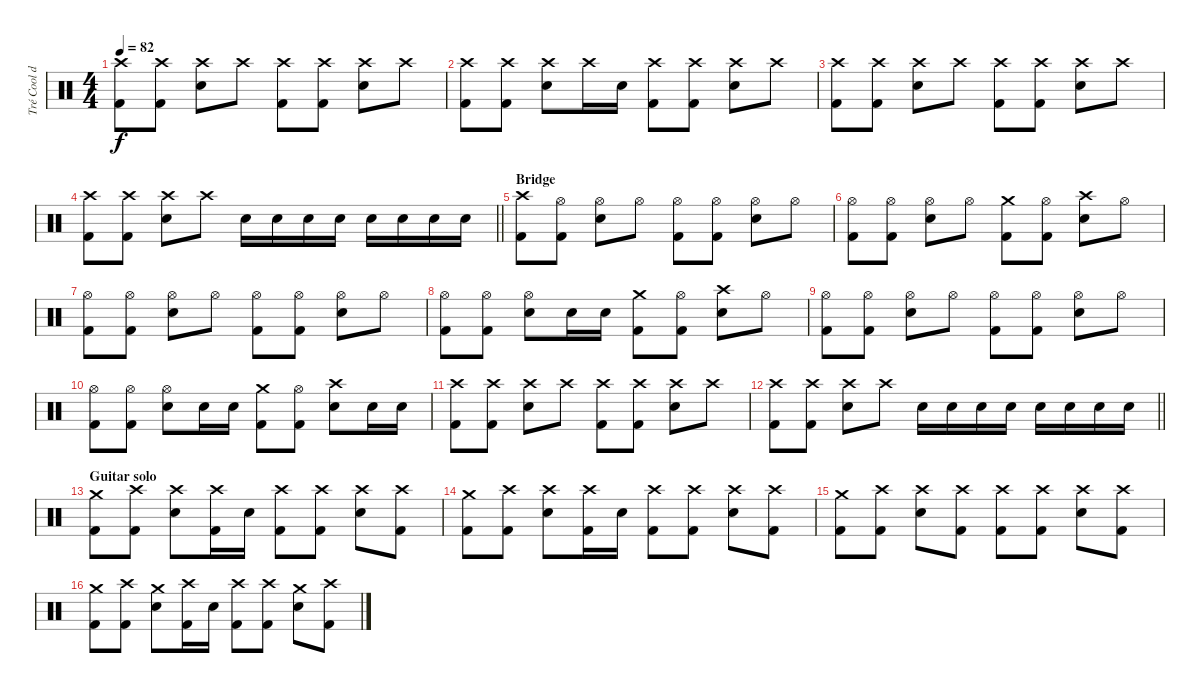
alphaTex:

\track ("Tré Cool drums" "Tré Cool d") {instrument percussion}
\staff {score}
\articulation defaults
\ts (4 4)
\tempo 82
\clef neutral
\ks c
("Crash high (hit)" "Kick (hit) 2").8{dy f} ("Crash high (hit)" "Kick (hit) 2").8 ("Crash high (hit)" "Snare (hit) 2").8 "Crash high (hit)".8 ("Crash high (hit)" "Kick (hit) 2").8 ("Crash high (hit)" "Kick (hit) 2").8 ("Crash high (hit)" "Snare (hit) 2").8 "Crash high (hit)".8 |
("Crash high (hit)" "Kick (hit) 2").8 ("Crash high (hit)" "Kick (hit) 2").8 ("Crash high (hit)" "Snare (hit) 2").8 "Crash high (hit)".16 "Snare (hit) 2".16 ("Crash high (hit)" "Kick (hit) 2").8 ("Crash high (hit)" "Kick (hit) 2").8 ("Crash high (hit)" "Snare (hit) 2").8 "Crash high (hit)".8 |
("Crash high (hit)" "Kick (hit) 2").8 ("Crash high (hit)" "Kick (hit) 2").8 ("Crash high (hit)" "Snare (hit) 2").8 "Crash high (hit)".8 ("Crash high (hit)" "Kick (hit) 2").8 ("Crash high (hit)" "Kick (hit) 2").8 ("Crash high (hit)" "Snare (hit) 2").8 "Crash high (hit)".8 |
\barLineRight lightlight
("Crash high (hit)" "Kick (hit) 2").8 ("Crash high (hit)" "Kick (hit) 2").8 ("Crash high (hit)" "Snare (hit) 2").8 "Crash high (hit)".8 "Snare (hit) 2".16 "Snare (hit) 2".16 "Snare (hit) 2".16 "Snare (hit) 2".16 "Snare (hit) 2".16 "Snare (hit) 2".16 "Snare (hit) 2".16 "Snare (hit) 2".16 |
\section ("" "Bridge")
("Crash high (hit)" "Kick (hit) 2").8 ("Hi-Hat (open)" "Kick (hit) 2").8 ("Hi-Hat (open)" "Snare (hit) 2").8 "Hi-Hat (open)".8 ("Hi-Hat (open)" "Kick (hit) 2").8 ("Hi-Hat (open)" "Kick (hit) 2").8 ("Hi-Hat (open)" "Snare (hit) 2").8 "Hi-Hat (open)".8 |
("Hi-Hat (open)" "Kick (hit) 2").8 ("Hi-Hat (open)" "Kick (hit) 2").8 ("Hi-Hat (open)" "Snare (hit) 2").8 "Hi-Hat (open)".8 ("Crash medium (hit)" "Kick (hit) 2").8 ("Hi-Hat (open)" "Kick (hit) 2").8 ("Crash high (hit)" "Snare (hit) 2").8 "Hi-Hat (open)".8 |
("Hi-Hat (open)" "Kick (hit) 2").8 ("Hi-Hat (open)" "Kick (hit) 2").8 ("Hi-Hat (open)" "Snare (hit) 2").8 "Hi-Hat (open)".8 ("Hi-Hat (open)" "Kick (hit) 2").8 ("Hi-Hat (open)" "Kick (hit) 2").8 ("Hi-Hat (open)" "Snare (hit) 2").8 "Hi-Hat (open)".8 |
("Hi-Hat (open)" "Kick (hit) 2").8 ("Hi-Hat (open)" "Kick (hit) 2").8 ("Hi-Hat (open)" "Snare (hit) 2").8 "Snare (hit) 2".16 "Snare (hit) 2".16 ("Crash medium (hit)" "Kick (hit) 2").8 ("Hi-Hat (open)" "Kick (hit) 2").8 ("Crash high (hit)" "Snare (hit) 2").8 "Hi-Hat (open)".8 |
("Hi-Hat (open)" "Kick (hit) 2").8 ("Hi-Hat (open)" "Kick (hit) 2").8 ("Hi-Hat (open)" "Snare (hit) 2").8 "Hi-Hat (open)".8 ("Hi-Hat (open)" "Kick (hit) 2").8 ("Hi-Hat (open)" "Kick (hit) 2").8 ("Hi-Hat (open)" "Snare (hit) 2").8 "Hi-Hat (open)".8 |
("Hi-Hat (open)" "Kick (hit) 2").8 ("Hi-Hat (open)" "Kick (hit) 2").8 ("Hi-Hat (open)" "Snare (hit) 2").8 "Snare (hit) 2".16 "Snare (hit) 2".16 ("Crash medium (hit)" "Kick (hit) 2").8 ("Hi-Hat (open)" "Kick (hit) 2").8 ("Crash high (hit)" "Snare (hit) 2").8 "Snare (hit) 2".16 "Snare (hit) 2".16 |
("Crash high (hit)" "Kick (hit) 2").8 ("Crash high (hit)" "Kick (hit) 2").8 ("Crash high (hit)" "Snare (hit) 2").8 "Crash high (hit)".8 ("Crash high (hit)" "Kick (hit) 2").8 ("Crash high (hit)" "Kick (hit) 2").8 ("Crash high (hit)" "Snare (hit) 2").8 "Crash high (hit)".8 |
\barLineRight lightlight
("Crash high (hit)" "Kick (hit) 2").8 ("Crash high (hit)" "Kick (hit) 2").8 ("Crash high (hit)" "Snare (hit) 2").8 "Crash high (hit)".8 "Snare (hit) 2".16 "Snare (hit) 2".16 "Snare (hit) 2".16 "Snare (hit) 2".16 "Snare (hit) 2".16 "Snare (hit) 2".16 "Snare (hit) 2".16 "Snare (hit) 2".16 |
\section ("" "Guitar solo")
("Crash medium (hit)" "Kick (hit) 2").8 ("Crash high (hit)" "Kick (hit) 2").8 ("Crash high (hit)" "Snare (hit) 2").8 ("Crash high (hit)" "Kick (hit) 2").16 "Snare (hit) 2".16 ("Crash high (hit)" "Kick (hit) 2").8 ("Crash high (hit)" "Kick (hit) 2").8 ("Crash high (hit)" "Snare (hit) 2").8 ("Crash high (hit)" "Kick (hit) 2").8 |
("Crash medium (hit)" "Kick (hit) 2").8 ("Crash high (hit)" "Kick (hit) 2").8 ("Crash high (hit)" "Snare (hit) 2").8 ("Crash high (hit)" "Kick (hit) 2").16 "Snare (hit) 2".16 ("Crash high (hit)" "Kick (hit) 2").8 ("Crash high (hit)" "Kick (hit) 2").8 ("Crash high (hit)" "Snare (hit) 2").8 ("Crash high (hit)" "Kick (hit) 2").8 |
("Crash medium (hit)" "Kick (hit) 2").8 ("Crash high (hit)" "Kick (hit) 2").8 ("Crash high (hit)" "Snare (hit) 2").8 ("Crash high (hit)" "Kick (hit) 2").8 ("Crash high (hit)" "Kick (hit) 2").8 ("Crash high (hit)" "Kick (hit) 2").8 ("Crash high (hit)" "Snare (hit) 2").8 ("Crash high (hit)" "Kick (hit) 2").8 |
("Crash medium (hit)" "Kick (hit) 2").8 ("Crash high (hit)" "Kick (hit) 2").8 ("Crash medium (hit)" "Snare (hit) 2").8 ("Crash high (hit)" "Kick (hit) 2").16 "Snare (hit) 2".16 ("Crash high (hit)" "Kick (hit) 2").8 ("Crash high (hit)" "Kick (hit) 2").8 ("Crash medium (hit)" "Snare (hit) 2").8 ("Crash high (hit)" "Kick (hit) 2").8
